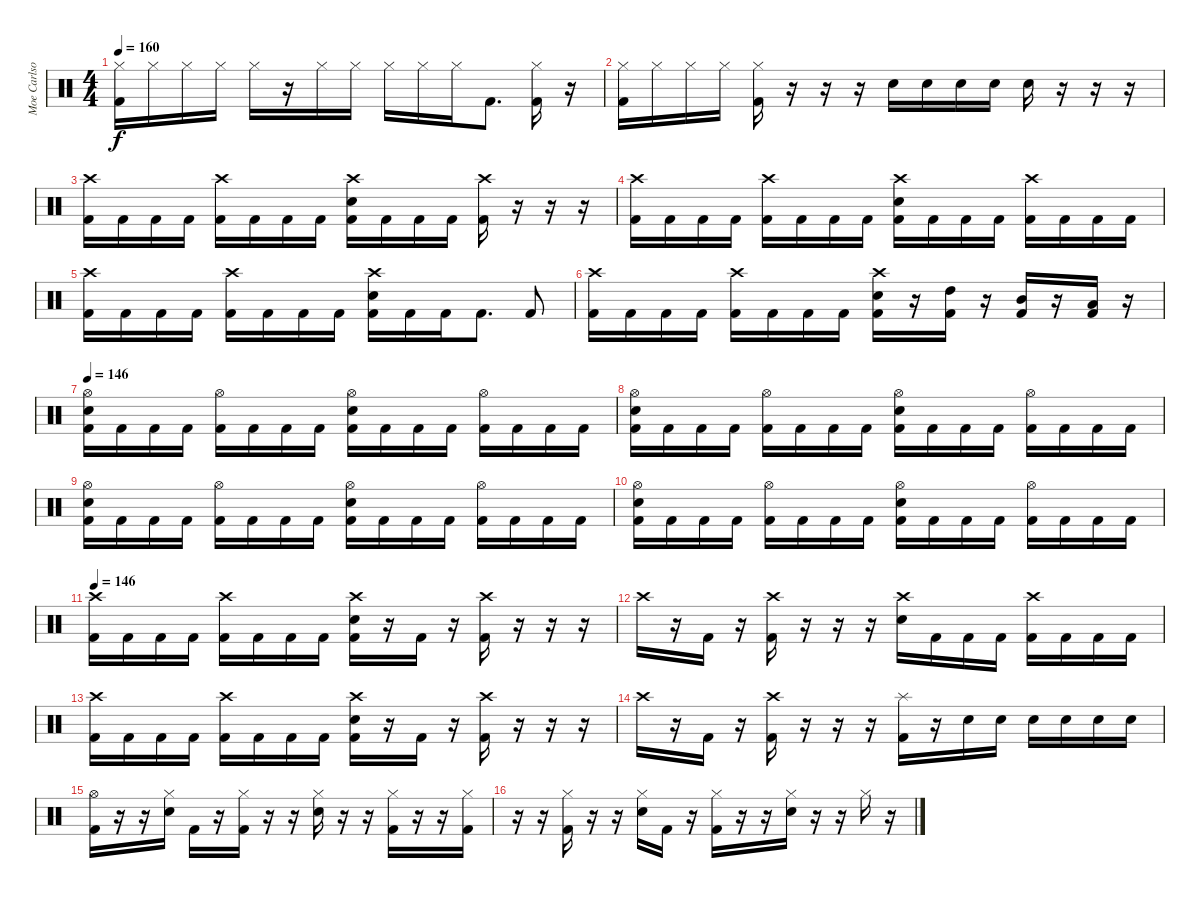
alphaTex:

\track ("Moe Carlson" "Moe Carlso") {instrument percussion}
\staff {score}
\articulation defaults
\ts (4 4)
\tempo 160
\clef neutral
\ks c
("Hi-Hat (closed)" "Kick (hit) 2").16{dy f} "Hi-Hat (closed)".16 "Hi-Hat (closed)".16 "Hi-Hat (closed)".16 "Hi-Hat (closed)".16 r.16 "Hi-Hat (closed)".16 "Hi-Hat (closed)".16 "Hi-Hat (closed)".16 "Hi-Hat (closed)".16 "Hi-Hat (closed)".16 "Kick (hit) 2".8{d} ("Hi-Hat (closed)" "Kick (hit) 2").16 r.16 |
("Hi-Hat (closed)" "Kick (hit) 2").16 "Hi-Hat (closed)".16 "Hi-Hat (closed)".16 "Hi-Hat (closed)".16 ("Hi-Hat (closed)" "Kick (hit) 2").16 r.16 r.16 r.16 "Electric Snare (hit)".16 "Electric Snare (hit)".16 "Electric Snare (hit)".16 "Electric Snare (hit)".16 "Electric Snare (hit)".16 r.16 r.16 r.16 |
("Crash high (hit)" "Kick (hit) 2").16 "Kick (hit) 2".16 "Kick (hit) 2".16 "Kick (hit) 2".16 ("Crash high (hit)" "Kick (hit) 2").16 "Kick (hit) 2".16 "Kick (hit) 2".16 "Kick (hit) 2".16 ("Crash high (hit)" "Electric Snare (hit)" "Kick (hit) 2").16 "Kick (hit) 2".16 "Kick (hit) 2".16 "Kick (hit) 2".16 ("Crash high (hit)" "Kick (hit) 2").16 r.16 r.16 r.16 |
("Crash high (hit)" "Kick (hit) 2").16 "Kick (hit) 2".16 "Kick (hit) 2".16 "Kick (hit) 2".16 ("Crash high (hit)" "Kick (hit) 2").16 "Kick (hit) 2".16 "Kick (hit) 2".16 "Kick (hit) 2".16 ("Crash high (hit)" "Electric Snare (hit)" "Kick (hit) 2").16 "Kick (hit) 2".16 "Kick (hit) 2".16 "Kick (hit) 2".16 ("Crash high (hit)" "Kick (hit) 2").16 "Kick (hit) 2".16 "Kick (hit) 2".16 "Kick (hit) 2".16 |
("Crash high (hit)" "Kick (hit) 2").16 "Kick (hit) 2".16 "Kick (hit) 2".16 "Kick (hit) 2".16 ("Crash high (hit)" "Kick (hit) 2").16 "Kick (hit) 2".16 "Kick (hit) 2".16 "Kick (hit) 2".16 ("Crash high (hit)" "Electric Snare (hit)" "Kick (hit) 2").16 "Kick (hit) 2".16 "Kick (hit) 2".16 "Kick (hit) 2".8{d} "Kick (hit) 2".8 |
("Crash high (hit)" "Kick (hit) 2").16 "Kick (hit) 2".16 "Kick (hit) 2".16 "Kick (hit) 2".16 ("Crash high (hit)" "Kick (hit) 2").16 "Kick (hit) 2".16 "Kick (hit) 2".16 "Kick (hit) 2".16 ("Crash high (hit)" "Electric Snare (hit)" "Kick (hit) 2").16 r.16 ("High Tom (hit)" "Kick (hit) 2").16 r.16 ("Mid Tom (hit)" "Kick (hit) 2").16 r.16 ("Low Tom (hit)" "Kick (hit) 2").16 r.16 |
\tempo 146
("Hi-Hat (open)" "Electric Snare (hit)" "Kick (hit) 2").16 "Kick (hit) 2".16 "Kick (hit) 2".16 "Kick (hit) 2".16 ("Hi-Hat (open)" "Kick (hit) 2").16 "Kick (hit) 2".16 "Kick (hit) 2".16 "Kick (hit) 2".16 ("Hi-Hat (open)" "Electric Snare (hit)" "Kick (hit) 2").16 "Kick (hit) 2".16 "Kick (hit) 2".16 "Kick (hit) 2".16 ("Hi-Hat (open)" "Kick (hit) 2").16 "Kick (hit) 2".16 "Kick (hit) 2".16 "Kick (hit) 2".16 |
("Hi-Hat (open)" "Electric Snare (hit)" "Kick (hit) 2").16 "Kick (hit) 2".16 "Kick (hit) 2".16 "Kick (hit) 2".16 ("Hi-Hat (open)" "Kick (hit) 2").16 "Kick (hit) 2".16 "Kick (hit) 2".16 "Kick (hit) 2".16 ("Hi-Hat (open)" "Electric Snare (hit)" "Kick (hit) 2").16 "Kick (hit) 2".16 "Kick (hit) 2".16 "Kick (hit) 2".16 ("Hi-Hat (open)" "Kick (hit) 2").16 "Kick (hit) 2".16 "Kick (hit) 2".16 "Kick (hit) 2".16 |
("Hi-Hat (open)" "Electric Snare (hit)" "Kick (hit) 2").16 "Kick (hit) 2".16 "Kick (hit) 2".16 "Kick (hit) 2".16 ("Hi-Hat (open)" "Kick (hit) 2").16 "Kick (hit) 2".16 "Kick (hit) 2".16 "Kick (hit) 2".16 ("Hi-Hat (open)" "Electric Snare (hit)" "Kick (hit) 2").16 "Kick (hit) 2".16 "Kick (hit) 2".16 "Kick (hit) 2".16 ("Hi-Hat (open)" "Kick (hit) 2").16 "Kick (hit) 2".16 "Kick (hit) 2".16 "Kick (hit) 2".16 |
("Hi-Hat (open)" "Electric Snare (hit)" "Kick (hit) 2").16 "Kick (hit) 2".16 "Kick (hit) 2".16 "Kick (hit) 2".16 ("Hi-Hat (open)" "Kick (hit) 2").16 "Kick (hit) 2".16 "Kick (hit) 2".16 "Kick (hit) 2".16 ("Hi-Hat (open)" "Electric Snare (hit)" "Kick (hit) 2").16 "Kick (hit) 2".16 "Kick (hit) 2".16 "Kick (hit) 2".16 ("Hi-Hat (open)" "Kick (hit) 2").16 "Kick (hit) 2".16 "Kick (hit) 2".16 "Kick (hit) 2".16 |
\tempo 146
("Crash high (hit)" "Kick (hit) 2").16 "Kick (hit) 2".16 "Kick (hit) 2".16 "Kick (hit) 2".16 ("Crash high (hit)" "Kick (hit) 2").16 "Kick (hit) 2".16 "Kick (hit) 2".16 "Kick (hit) 2".16 ("Crash high (hit)" "Electric Snare (hit)" "Kick (hit) 2").16 r.16 "Kick (hit) 2".16 r.16 ("Crash high (hit)" "Kick (hit) 2").16 r.16 r.16 r.16 |
"Crash high (hit)".16 r.16 "Kick (hit) 2".16 r.16 ("Crash high (hit)" "Kick (hit) 2").16 r.16 r.16 r.16 ("Crash high (hit)" "Electric Snare (hit)").16 "Kick (hit) 2".16 "Kick (hit) 2".16 "Kick (hit) 2".16 ("Crash high (hit)" "Kick (hit) 2").16 "Kick (hit) 2".16 "Kick (hit) 2".16 "Kick (hit) 2".16 |
("Crash high (hit)" "Kick (hit) 2").16 "Kick (hit) 2".16 "Kick (hit) 2".16 "Kick (hit) 2".16 ("Crash high (hit)" "Kick (hit) 2").16 "Kick (hit) 2".16 "Kick (hit) 2".16 "Kick (hit) 2".16 ("Crash high (hit)" "Electric Snare (hit)" "Kick (hit) 2").16 r.16 "Kick (hit) 2".16 r.16 ("Crash high (hit)" "Kick (hit) 2").16 r.16 r.16 r.16 |
"Crash high (hit)".16 r.16 "Kick (hit) 2".16 r.16 ("Crash high (hit)" "Kick (hit) 2").16 r.16 r.16 r.16 ("Splash (hit)" "Kick (hit) 2").16 r.16 "Electric Snare (hit)".16 "Electric Snare (hit)".16 "Electric Snare (hit)".16 "Electric Snare (hit)".16 "Electric Snare (hit)".16 "Electric Snare (hit)".16 |
("Hi-Hat (open)" "Kick (hit) 2").16 r.16 r.16 ("Hi-Hat (closed)" "Electric Snare (hit)").16 "Kick (hit) 2".16 r.16 ("Hi-Hat (closed)" "Kick (hit) 2").16 r.16 r.16 ("Hi-Hat (closed)" "Electric Snare (hit)").16 r.16 r.16 ("Hi-Hat (closed)" "Kick (hit) 2").16 r.16 r.16 ("Hi-Hat (closed)" "Kick (hit) 2").16 |
r.16 r.16 ("Hi-Hat (closed)" "Kick (hit) 2").16 r.16 r.16 ("Hi-Hat (closed)" "Electric Snare (hit)").16 "Kick (hit) 2".16 r.16 ("Hi-Hat (closed)" "Kick (hit) 2").16 r.16 r.16 ("Hi-Hat (closed)" "Electric Snare (hit)").16 r.16 r.16 "Hi-Hat (closed)".16 r.16
